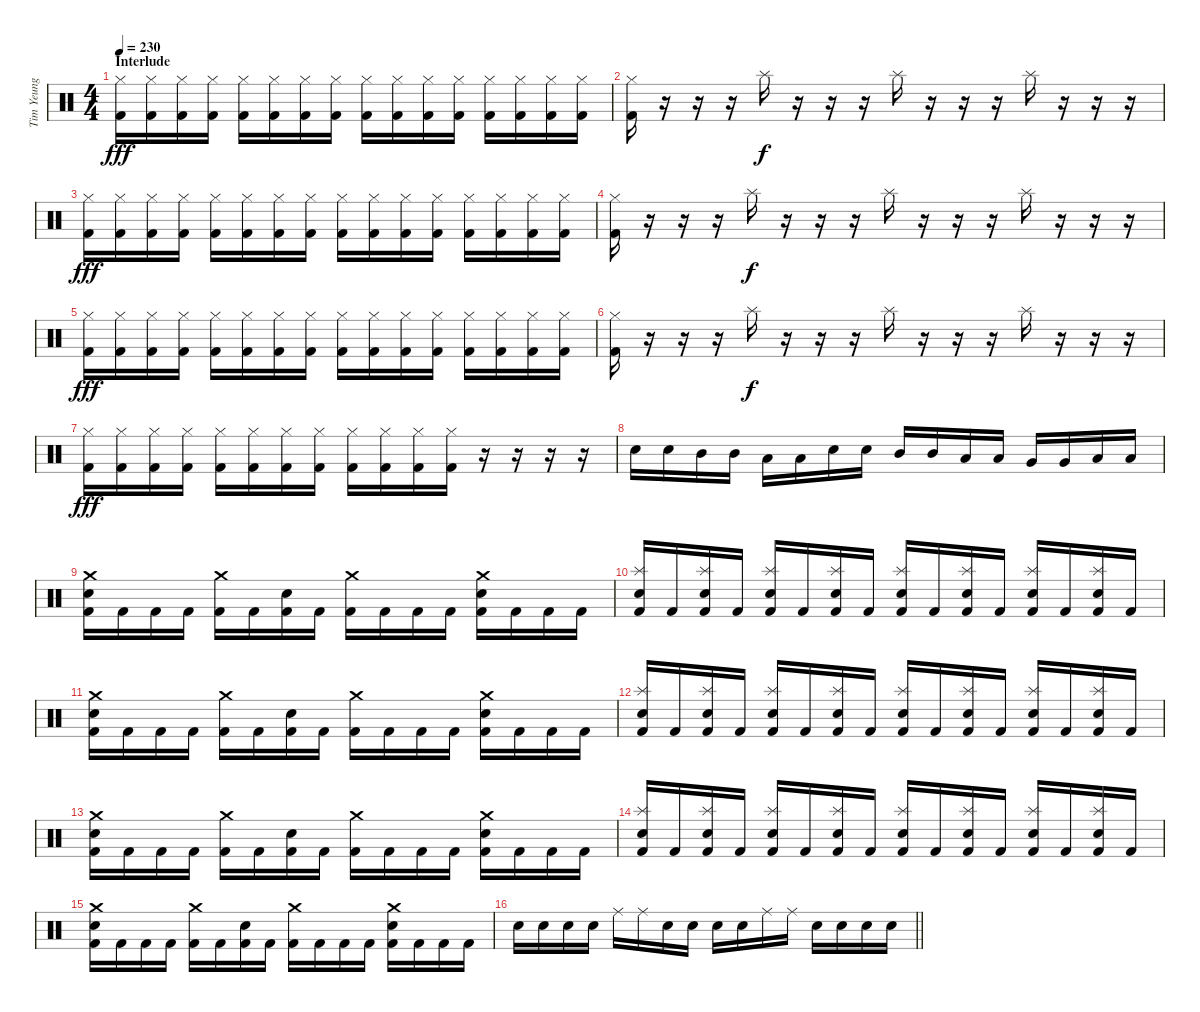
\track ("Tim Yeung" "Tim Yeung") {instrument percussion}
\staff {score}
\articulation defaults
\ts (4 4)
\section ("" "Interlude")
\tempo 230
\clef neutral
\ks c
("Hi-Hat (closed)" "Kick (hit) 2").16{dy fff} ("Hi-Hat (closed)" "Kick (hit) 2").16 ("Hi-Hat (closed)" "Kick (hit) 2").16 ("Hi-Hat (closed)" "Kick (hit) 2").16 ("Hi-Hat (closed)" "Kick (hit) 2").16 ("Hi-Hat (closed)" "Kick (hit) 2").16 ("Hi-Hat (closed)" "Kick (hit) 2").16 ("Hi-Hat (closed)" "Kick (hit) 2").16 ("Hi-Hat (closed)" "Kick (hit) 2").16 ("Hi-Hat (closed)" "Kick (hit) 2").16 ("Hi-Hat (closed)" "Kick (hit) 2").16 ("Hi-Hat (closed)" "Kick (hit) 2").16 ("Hi-Hat (closed)" "Kick (hit) 2").16 ("Hi-Hat (closed)" "Kick (hit) 2").16 ("Hi-Hat (closed)" "Kick (hit) 2").16 ("Hi-Hat (closed)" "Kick (hit) 2").16 |
("Hi-Hat (closed)" "Kick (hit) 2").16 r.16 r.16 r.16 "Splash (hit)".16{dy f} r.16 r.16 r.16 "Splash (hit)".16 r.16 r.16 r.16 "Splash (hit)".16 r.16 r.16 r.16 |
("Hi-Hat (closed)" "Kick (hit) 2").16{dy fff} ("Hi-Hat (closed)" "Kick (hit) 2").16 ("Hi-Hat (closed)" "Kick (hit) 2").16 ("Hi-Hat (closed)" "Kick (hit) 2").16 ("Hi-Hat (closed)" "Kick (hit) 2").16 ("Hi-Hat (closed)" "Kick (hit) 2").16 ("Hi-Hat (closed)" "Kick (hit) 2").16 ("Hi-Hat (closed)" "Kick (hit) 2").16 ("Hi-Hat (closed)" "Kick (hit) 2").16 ("Hi-Hat (closed)" "Kick (hit) 2").16 ("Hi-Hat (closed)" "Kick (hit) 2").16 ("Hi-Hat (closed)" "Kick (hit) 2").16 ("Hi-Hat (closed)" "Kick (hit) 2").16 ("Hi-Hat (closed)" "Kick (hit) 2").16 ("Hi-Hat (closed)" "Kick (hit) 2").16 ("Hi-Hat (closed)" "Kick (hit) 2").16 |
("Hi-Hat (closed)" "Kick (hit) 2").16 r.16 r.16 r.16 "Splash (hit)".16{dy f} r.16 r.16 r.16 "Splash (hit)".16 r.16 r.16 r.16 "Splash (hit)".16 r.16 r.16 r.16 |
("Hi-Hat (closed)" "Kick (hit) 2").16{dy fff} ("Hi-Hat (closed)" "Kick (hit) 2").16 ("Hi-Hat (closed)" "Kick (hit) 2").16 ("Hi-Hat (closed)" "Kick (hit) 2").16 ("Hi-Hat (closed)" "Kick (hit) 2").16 ("Hi-Hat (closed)" "Kick (hit) 2").16 ("Hi-Hat (closed)" "Kick (hit) 2").16 ("Hi-Hat (closed)" "Kick (hit) 2").16 ("Hi-Hat (closed)" "Kick (hit) 2").16 ("Hi-Hat (closed)" "Kick (hit) 2").16 ("Hi-Hat (closed)" "Kick (hit) 2").16 ("Hi-Hat (closed)" "Kick (hit) 2").16 ("Hi-Hat (closed)" "Kick (hit) 2").16 ("Hi-Hat (closed)" "Kick (hit) 2").16 ("Hi-Hat (closed)" "Kick (hit) 2").16 ("Hi-Hat (closed)" "Kick (hit) 2").16 |
("Hi-Hat (closed)" "Kick (hit) 2").16 r.16 r.16 r.16 "Splash (hit)".16{dy f} r.16 r.16 r.16 "Splash (hit)".16 r.16 r.16 r.16 "Splash (hit)".16 r.16 r.16 r.16 |
("Hi-Hat (closed)" "Kick (hit) 2").16{dy fff} ("Hi-Hat (closed)" "Kick (hit) 2").16 ("Hi-Hat (closed)" "Kick (hit) 2").16 ("Hi-Hat (closed)" "Kick (hit) 2").16 ("Hi-Hat (closed)" "Kick (hit) 2").16 ("Hi-Hat (closed)" "Kick (hit) 2").16 ("Hi-Hat (closed)" "Kick (hit) 2").16 ("Hi-Hat (closed)" "Kick (hit) 2").16 ("Hi-Hat (closed)" "Kick (hit) 2").16 ("Hi-Hat (closed)" "Kick (hit) 2").16 ("Hi-Hat (closed)" "Kick (hit) 2").16 ("Hi-Hat (closed)" "Kick (hit) 2").16 r.16 r.16 r.16 r.16 |
"Electric Snare (hit)".16 "Electric Snare (hit)".16 "Mid Tom (hit)".16 "Mid Tom (hit)".16 "Low Tom (hit)".16 "Low Tom (hit)".16 "Electric Snare (hit)".16 "Electric Snare (hit)".16 "Mid Tom (hit)".16 "Mid Tom (hit)".16 "Low Tom (hit)".16 "Low Tom (hit)".16 "Very Low Tom (hit)".16 "Very Low Tom (hit)".16 "Low Floor Tom (hit)".16 "Low Floor Tom (hit)".16 |
("Crash medium (hit)" "Electric Snare (hit)" "Kick (hit) 2").16 "Kick (hit) 2".16 "Kick (hit) 2".16 "Kick (hit) 2".16 ("Crash medium (hit)" "Kick (hit) 2").16 "Kick (hit) 2".16 ("Electric Snare (hit)" "Kick (hit) 2").16 "Kick (hit) 2".16 ("Crash medium (hit)" "Kick (hit) 2").16 "Kick (hit) 2".16 "Kick (hit) 2".16 "Kick (hit) 2".16 ("Crash medium (hit)" "Electric Snare (hit)" "Kick (hit) 2").16 "Kick (hit) 2".16 "Kick (hit) 2".16 "Kick (hit) 2".16 |
("Splash (hit)" "Electric Snare (hit)" "Kick (hit) 2").16 "Kick (hit) 2".16 ("Splash (hit)" "Electric Snare (hit)" "Kick (hit) 2").16 "Kick (hit) 2".16 ("Splash (hit)" "Electric Snare (hit)" "Kick (hit) 2").16 "Kick (hit) 2".16 ("Splash (hit)" "Electric Snare (hit)" "Kick (hit) 2").16 "Kick (hit) 2".16 ("Splash (hit)" "Electric Snare (hit)" "Kick (hit) 2").16 "Kick (hit) 2".16 ("Splash (hit)" "Electric Snare (hit)" "Kick (hit) 2").16 "Kick (hit) 2".16 ("Splash (hit)" "Electric Snare (hit)" "Kick (hit) 2").16 "Kick (hit) 2".16 ("Splash (hit)" "Electric Snare (hit)" "Kick (hit) 2").16 "Kick (hit) 2".16 |
("Crash medium (hit)" "Electric Snare (hit)" "Kick (hit) 2").16 "Kick (hit) 2".16 "Kick (hit) 2".16 "Kick (hit) 2".16 ("Crash medium (hit)" "Kick (hit) 2").16 "Kick (hit) 2".16 ("Electric Snare (hit)" "Kick (hit) 2").16 "Kick (hit) 2".16 ("Crash medium (hit)" "Kick (hit) 2").16 "Kick (hit) 2".16 "Kick (hit) 2".16 "Kick (hit) 2".16 ("Crash medium (hit)" "Electric Snare (hit)" "Kick (hit) 2").16 "Kick (hit) 2".16 "Kick (hit) 2".16 "Kick (hit) 2".16 |
("Splash (hit)" "Electric Snare (hit)" "Kick (hit) 2").16 "Kick (hit) 2".16 ("Splash (hit)" "Electric Snare (hit)" "Kick (hit) 2").16 "Kick (hit) 2".16 ("Splash (hit)" "Electric Snare (hit)" "Kick (hit) 2").16 "Kick (hit) 2".16 ("Splash (hit)" "Electric Snare (hit)" "Kick (hit) 2").16 "Kick (hit) 2".16 ("Splash (hit)" "Electric Snare (hit)" "Kick (hit) 2").16 "Kick (hit) 2".16 ("Splash (hit)" "Electric Snare (hit)" "Kick (hit) 2").16 "Kick (hit) 2".16 ("Splash (hit)" "Electric Snare (hit)" "Kick (hit) 2").16 "Kick (hit) 2".16 ("Splash (hit)" "Electric Snare (hit)" "Kick (hit) 2").16 "Kick (hit) 2".16 |
("Crash medium (hit)" "Electric Snare (hit)" "Kick (hit) 2").16 "Kick (hit) 2".16 "Kick (hit) 2".16 "Kick (hit) 2".16 ("Crash medium (hit)" "Kick (hit) 2").16 "Kick (hit) 2".16 ("Electric Snare (hit)" "Kick (hit) 2").16 "Kick (hit) 2".16 ("Crash medium (hit)" "Kick (hit) 2").16 "Kick (hit) 2".16 "Kick (hit) 2".16 "Kick (hit) 2".16 ("Crash medium (hit)" "Electric Snare (hit)" "Kick (hit) 2").16 "Kick (hit) 2".16 "Kick (hit) 2".16 "Kick (hit) 2".16 |
("Splash (hit)" "Electric Snare (hit)" "Kick (hit) 2").16 "Kick (hit) 2".16 ("Splash (hit)" "Electric Snare (hit)" "Kick (hit) 2").16 "Kick (hit) 2".16 ("Splash (hit)" "Electric Snare (hit)" "Kick (hit) 2").16 "Kick (hit) 2".16 ("Splash (hit)" "Electric Snare (hit)" "Kick (hit) 2").16 "Kick (hit) 2".16 ("Splash (hit)" "Electric Snare (hit)" "Kick (hit) 2").16 "Kick (hit) 2".16 ("Splash (hit)" "Electric Snare (hit)" "Kick (hit) 2").16 "Kick (hit) 2".16 ("Splash (hit)" "Electric Snare (hit)" "Kick (hit) 2").16 "Kick (hit) 2".16 ("Splash (hit)" "Electric Snare (hit)" "Kick (hit) 2").16 "Kick (hit) 2".16 |
("Crash medium (hit)" "Electric Snare (hit)" "Kick (hit) 2").16 "Kick (hit) 2".16 "Kick (hit) 2".16 "Kick (hit) 2".16 ("Crash medium (hit)" "Kick (hit) 2").16 "Kick (hit) 2".16 ("Electric Snare (hit)" "Kick (hit) 2").16 "Kick (hit) 2".16 ("Crash medium (hit)" "Kick (hit) 2").16 "Kick (hit) 2".16 "Kick (hit) 2".16 "Kick (hit) 2".16 ("Crash medium (hit)" "Electric Snare (hit)" "Kick (hit) 2").16 "Kick (hit) 2".16 "Kick (hit) 2".16 "Kick (hit) 2".16 |
\barLineRight lightlight "Electric Snare (hit)".16 "Electric Snare (hit)".16 "Electric Snare (hit)".16 "Electric Snare (hit)".16 "Ride (middle)".16 "Ride (middle)".16 "Electric Snare (hit)".16 "Electric Snare (hit)".16 "Electric Snare (hit)".16 "Electric Snare (hit)".16 "Ride (middle)".16 "Ride (middle)".16 "Electric Snare (hit)".16 "Electric Snare (hit)".16 "Electric Snare (hit)".16 "Electric Snare (hit)".16
